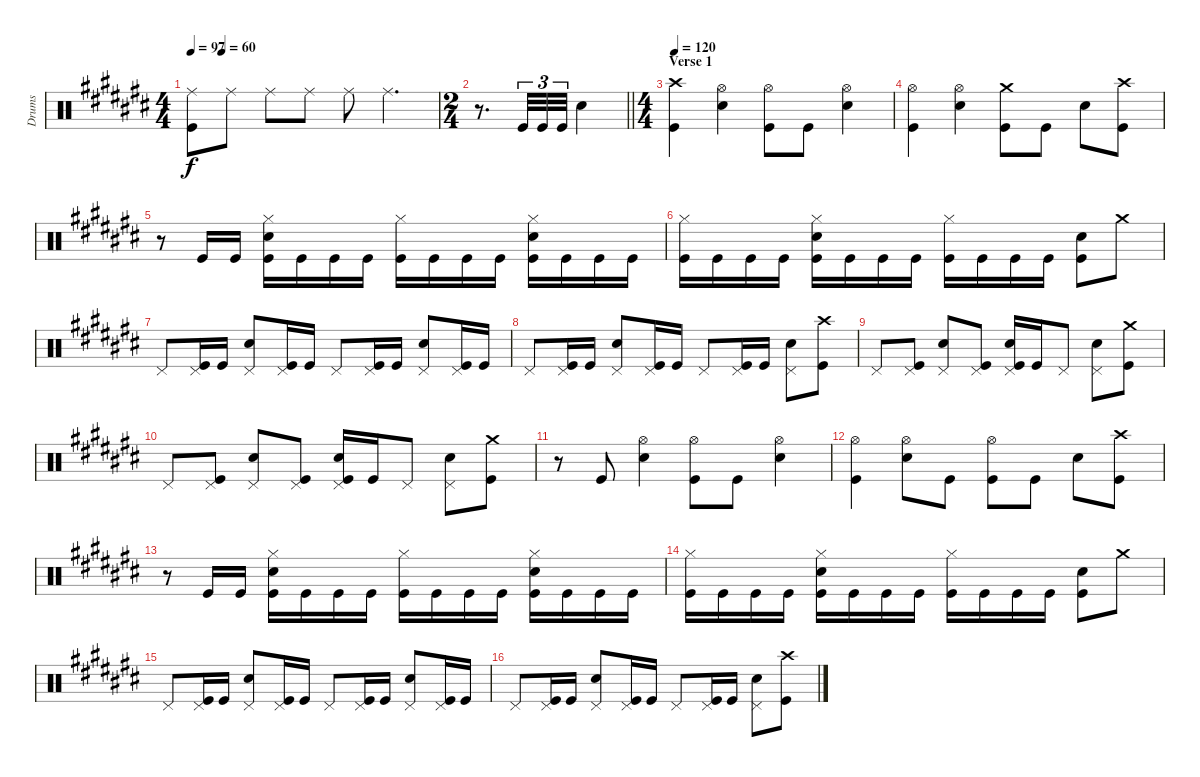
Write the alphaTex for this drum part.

\track ("Drums" "Drums") {instrument percussion}
\staff {score}
\articulation defaults
\ts (4 4)
\tempo 97
\tempo (60 0.125)
\clef neutral
\ks c#
("Ride (middle)" "Kick (hit)").8{dy f} "Ride (middle)".8 "Ride (middle)".8 "Ride (middle)".8 "Ride (middle)".8 "Ride (middle)".4{d} |
\ts (2 4)
\barLineRight lightlight
r.8{d} "Kick (hit)".32{tu (3 2)} "Kick (hit)".32{tu (3 2)} "Kick (hit)".32{tu (3 2)} "Snare (hit) 2".4 |
\ts (4 4)
\section ("" "Verse 1")
\tempo 120
("Crash high (hit)" "Kick (hit)").4 ("Hi-Hat (open)" "Snare (hit) 2").4 ("Hi-Hat (open)" "Kick (hit)").8 "Kick (hit)".8 ("Hi-Hat (open)" "Snare (hit) 2").4 |
("Hi-Hat (open)" "Kick (hit)").4 ("Hi-Hat (open)" "Snare (hit) 2").4 ("Crash medium (hit)" "Kick (hit)").8 "Kick (hit)".8 "Snare (hit) 2".8 ("Crash high (hit)" "Kick (hit)").8 |
r.8 "Kick (hit)".16 "Kick (hit)".16 ("Hi-Hat (closed)" "Snare (hit) 2" "Kick (hit)").16 "Kick (hit)".16 "Kick (hit)".16 "Kick (hit)".16 ("Hi-Hat (closed)" "Kick (hit)").16 "Kick (hit)".16 "Kick (hit)".16 "Kick (hit)".16 ("Hi-Hat (closed)" "Snare (hit) 2" "Kick (hit)").16 "Kick (hit)".16 "Kick (hit)".16 "Kick (hit)".16 |
("Hi-Hat (closed)" "Kick (hit)").16 "Kick (hit)".16 "Kick (hit)".16 "Kick (hit)".16 ("Hi-Hat (closed)" "Snare (hit) 2" "Kick (hit)").16 "Kick (hit)".16 "Kick (hit)".16 "Kick (hit)".16 ("Hi-Hat (closed)" "Kick (hit)").16 "Kick (hit)".16 "Kick (hit)".16 "Kick (hit)".16 ("Snare (hit) 2" "Kick (hit)").8 "Crash medium (hit)".8 |
"Pedal Hi-Hat (hit)".8 ("Pedal Hi-Hat (hit)" "Kick (hit)").16 "Kick (hit)".16 ("Pedal Hi-Hat (hit)" "Snare (hit) 2").8 ("Pedal Hi-Hat (hit)" "Kick (hit)").16 "Kick (hit)".16 "Pedal Hi-Hat (hit)".8 ("Pedal Hi-Hat (hit)" "Kick (hit)").16 "Kick (hit)".16 ("Pedal Hi-Hat (hit)" "Snare (hit) 2").8 ("Pedal Hi-Hat (hit)" "Kick (hit)").16 "Kick (hit)".16 |
"Pedal Hi-Hat (hit)".8 ("Pedal Hi-Hat (hit)" "Kick (hit)").16 "Kick (hit)".16 ("Pedal Hi-Hat (hit)" "Snare (hit) 2").8 ("Pedal Hi-Hat (hit)" "Kick (hit)").16 "Kick (hit)".16 "Pedal Hi-Hat (hit)".8 ("Pedal Hi-Hat (hit)" "Kick (hit)").16 "Kick (hit)".16 ("Pedal Hi-Hat (hit)" "Snare (hit) 2").8 ("Crash high (hit)" "Kick (hit)").8 |
"Pedal Hi-Hat (hit)".8 ("Pedal Hi-Hat (hit)" "Kick (hit)").8 ("Pedal Hi-Hat (hit)" "Snare (hit) 2").8 ("Pedal Hi-Hat (hit)" "Kick (hit)").8 ("Pedal Hi-Hat (hit)" "Snare (hit) 2" "Kick (hit)").16 "Kick (hit)".16 "Pedal Hi-Hat (hit)".8 ("Pedal Hi-Hat (hit)" "Snare (hit) 2").8 ("Crash medium (hit)" "Kick (hit)").8 |
"Pedal Hi-Hat (hit)".8 ("Pedal Hi-Hat (hit)" "Kick (hit)").8 ("Pedal Hi-Hat (hit)" "Snare (hit) 2").8 ("Pedal Hi-Hat (hit)" "Kick (hit)").8 ("Pedal Hi-Hat (hit)" "Snare (hit) 2" "Kick (hit)").16 "Kick (hit)".16 "Pedal Hi-Hat (hit)".8 ("Pedal Hi-Hat (hit)" "Snare (hit) 2").8 ("Crash medium (hit)" "Kick (hit)").8 |
r.8 "Kick (hit)".8 ("Hi-Hat (open)" "Snare (hit) 2").4 ("Hi-Hat (open)" "Kick (hit)").8 "Kick (hit)".8 ("Hi-Hat (open)" "Snare (hit) 2").4 |
("Hi-Hat (open)" "Kick (hit)").4 ("Hi-Hat (open)" "Snare (hit) 2").8 "Kick (hit)".8 ("Hi-Hat (open)" "Kick (hit)").8 "Kick (hit)".8 "Snare (hit) 2".8 ("Crash high (hit)" "Kick (hit)").8 |
r.8 "Kick (hit)".16 "Kick (hit)".16 ("Hi-Hat (closed)" "Snare (hit) 2" "Kick (hit)").16 "Kick (hit)".16 "Kick (hit)".16 "Kick (hit)".16 ("Hi-Hat (closed)" "Kick (hit)").16 "Kick (hit)".16 "Kick (hit)".16 "Kick (hit)".16 ("Hi-Hat (closed)" "Snare (hit) 2" "Kick (hit)").16 "Kick (hit)".16 "Kick (hit)".16 "Kick (hit)".16 |
("Hi-Hat (closed)" "Kick (hit)").16 "Kick (hit)".16 "Kick (hit)".16 "Kick (hit)".16 ("Hi-Hat (closed)" "Snare (hit) 2" "Kick (hit)").16 "Kick (hit)".16 "Kick (hit)".16 "Kick (hit)".16 ("Hi-Hat (closed)" "Kick (hit)").16 "Kick (hit)".16 "Kick (hit)".16 "Kick (hit)".16 ("Snare (hit) 2" "Kick (hit)").8 "Crash medium (hit)".8 |
"Pedal Hi-Hat (hit)".8 ("Pedal Hi-Hat (hit)" "Kick (hit)").16 "Kick (hit)".16 ("Pedal Hi-Hat (hit)" "Snare (hit) 2").8 ("Pedal Hi-Hat (hit)" "Kick (hit)").16 "Kick (hit)".16 "Pedal Hi-Hat (hit)".8 ("Pedal Hi-Hat (hit)" "Kick (hit)").16 "Kick (hit)".16 ("Pedal Hi-Hat (hit)" "Snare (hit) 2").8 ("Pedal Hi-Hat (hit)" "Kick (hit)").16 "Kick (hit)".16 |
"Pedal Hi-Hat (hit)".8 ("Pedal Hi-Hat (hit)" "Kick (hit)").16 "Kick (hit)".16 ("Pedal Hi-Hat (hit)" "Snare (hit) 2").8 ("Pedal Hi-Hat (hit)" "Kick (hit)").16 "Kick (hit)".16 "Pedal Hi-Hat (hit)".8 ("Pedal Hi-Hat (hit)" "Kick (hit)").16 "Kick (hit)".16 ("Pedal Hi-Hat (hit)" "Snare (hit) 2").8 ("Crash high (hit)" "Kick (hit)").8
